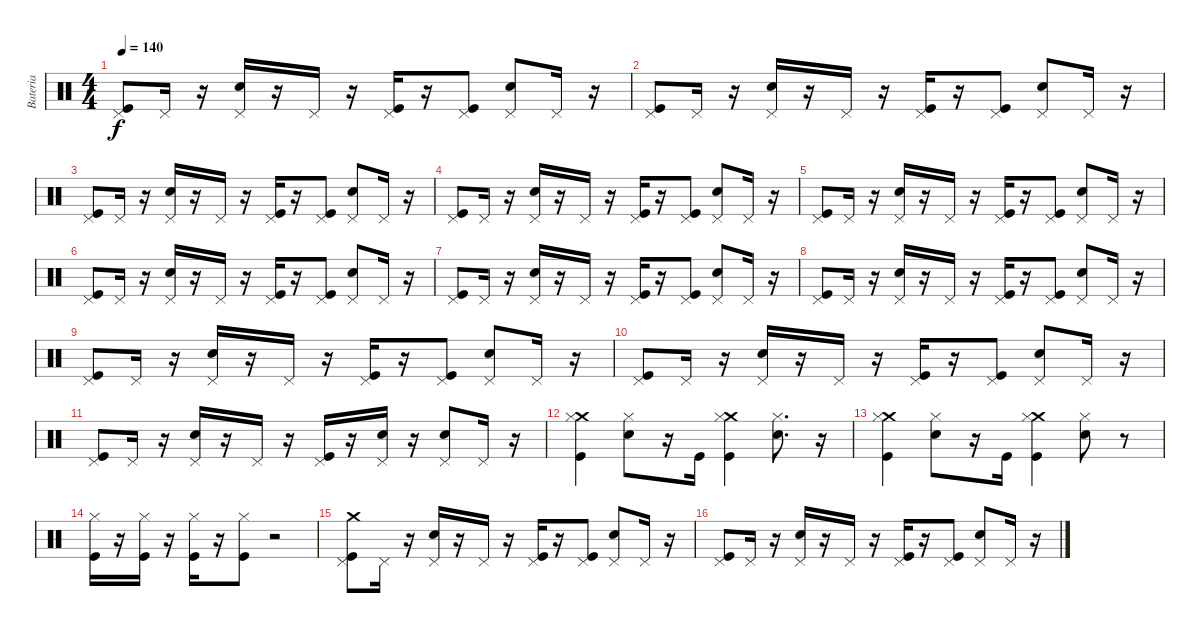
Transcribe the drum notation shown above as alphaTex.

\track ("Bateria" "Bateria") {instrument percussion}
\staff {score}
\articulation defaults
\ts (4 4)
\tempo 140
\clef neutral
\ks c
("Pedal Hi-Hat (hit)" "Kick (hit)").8{dy f} "Pedal Hi-Hat (hit)".16 r.16 ("Pedal Hi-Hat (hit)" "Snare (hit) 2").16 r.16 "Pedal Hi-Hat (hit)".16 r.16 ("Pedal Hi-Hat (hit)" "Kick (hit)").16 r.16 ("Pedal Hi-Hat (hit)" "Kick (hit)").8 ("Pedal Hi-Hat (hit)" "Snare (hit) 2").8 "Pedal Hi-Hat (hit)".16 r.16 |
("Pedal Hi-Hat (hit)" "Kick (hit)").8 "Pedal Hi-Hat (hit)".16 r.16 ("Pedal Hi-Hat (hit)" "Snare (hit) 2").16 r.16 "Pedal Hi-Hat (hit)".16 r.16 ("Pedal Hi-Hat (hit)" "Kick (hit)").16 r.16 ("Pedal Hi-Hat (hit)" "Kick (hit)").8 ("Pedal Hi-Hat (hit)" "Snare (hit) 2").8 "Pedal Hi-Hat (hit)".16 r.16 |
("Pedal Hi-Hat (hit)" "Kick (hit)").8 "Pedal Hi-Hat (hit)".16 r.16 ("Pedal Hi-Hat (hit)" "Snare (hit) 2").16 r.16 "Pedal Hi-Hat (hit)".16 r.16 ("Pedal Hi-Hat (hit)" "Kick (hit)").16 r.16 ("Pedal Hi-Hat (hit)" "Kick (hit)").8 ("Pedal Hi-Hat (hit)" "Snare (hit) 2").8 "Pedal Hi-Hat (hit)".16 r.16 |
("Pedal Hi-Hat (hit)" "Kick (hit)").8 "Pedal Hi-Hat (hit)".16 r.16 ("Pedal Hi-Hat (hit)" "Snare (hit) 2").16 r.16 "Pedal Hi-Hat (hit)".16 r.16 ("Pedal Hi-Hat (hit)" "Kick (hit)").16 r.16 ("Pedal Hi-Hat (hit)" "Kick (hit)").8 ("Pedal Hi-Hat (hit)" "Snare (hit) 2").8 "Pedal Hi-Hat (hit)".16 r.16 |
("Pedal Hi-Hat (hit)" "Kick (hit)").8 "Pedal Hi-Hat (hit)".16 r.16 ("Pedal Hi-Hat (hit)" "Snare (hit) 2").16 r.16 "Pedal Hi-Hat (hit)".16 r.16 ("Pedal Hi-Hat (hit)" "Kick (hit)").16 r.16 ("Pedal Hi-Hat (hit)" "Kick (hit)").8 ("Pedal Hi-Hat (hit)" "Snare (hit) 2").8 "Pedal Hi-Hat (hit)".16 r.16 |
("Pedal Hi-Hat (hit)" "Kick (hit)").8 "Pedal Hi-Hat (hit)".16 r.16 ("Pedal Hi-Hat (hit)" "Snare (hit) 2").16 r.16 "Pedal Hi-Hat (hit)".16 r.16 ("Pedal Hi-Hat (hit)" "Kick (hit)").16 r.16 ("Pedal Hi-Hat (hit)" "Kick (hit)").8 ("Pedal Hi-Hat (hit)" "Snare (hit) 2").8 "Pedal Hi-Hat (hit)".16 r.16 |
("Pedal Hi-Hat (hit)" "Kick (hit)").8 "Pedal Hi-Hat (hit)".16 r.16 ("Pedal Hi-Hat (hit)" "Snare (hit) 2").16 r.16 "Pedal Hi-Hat (hit)".16 r.16 ("Pedal Hi-Hat (hit)" "Kick (hit)").16 r.16 ("Pedal Hi-Hat (hit)" "Kick (hit)").8 ("Pedal Hi-Hat (hit)" "Snare (hit) 2").8 "Pedal Hi-Hat (hit)".16 r.16 |
("Pedal Hi-Hat (hit)" "Kick (hit)").8 "Pedal Hi-Hat (hit)".16 r.16 ("Pedal Hi-Hat (hit)" "Snare (hit) 2").16 r.16 "Pedal Hi-Hat (hit)".16 r.16 ("Pedal Hi-Hat (hit)" "Kick (hit)").16 r.16 ("Pedal Hi-Hat (hit)" "Kick (hit)").8 ("Pedal Hi-Hat (hit)" "Snare (hit) 2").8 "Pedal Hi-Hat (hit)".16 r.16 |
("Pedal Hi-Hat (hit)" "Kick (hit)").8 "Pedal Hi-Hat (hit)".16 r.16 ("Pedal Hi-Hat (hit)" "Snare (hit) 2").16 r.16 "Pedal Hi-Hat (hit)".16 r.16 ("Pedal Hi-Hat (hit)" "Kick (hit)").16 r.16 ("Pedal Hi-Hat (hit)" "Kick (hit)").8 ("Pedal Hi-Hat (hit)" "Snare (hit) 2").8 "Pedal Hi-Hat (hit)".16 r.16 |
("Pedal Hi-Hat (hit)" "Kick (hit)").8 "Pedal Hi-Hat (hit)".16 r.16 ("Pedal Hi-Hat (hit)" "Snare (hit) 2").16 r.16 "Pedal Hi-Hat (hit)".16 r.16 ("Pedal Hi-Hat (hit)" "Kick (hit)").16 r.16 ("Pedal Hi-Hat (hit)" "Kick (hit)").8 ("Pedal Hi-Hat (hit)" "Snare (hit) 2").8 "Pedal Hi-Hat (hit)".16 r.16 |
("Pedal Hi-Hat (hit)" "Kick (hit)").8 "Pedal Hi-Hat (hit)".16 r.16 ("Pedal Hi-Hat (hit)" "Snare (hit) 2").16 r.16 "Pedal Hi-Hat (hit)".16 r.16 ("Pedal Hi-Hat (hit)" "Kick (hit)").16 r.16 ("Pedal Hi-Hat (hit)" "Snare (hit) 2").16 r.16 ("Pedal Hi-Hat (hit)" "Snare (hit) 2").8 "Pedal Hi-Hat (hit)".16 r.16 |
("Crash medium (hit)" "Hi-Hat (closed)" "Kick (hit)").4 ("Hi-Hat (closed)" "Snare (hit) 2").8 r.16 "Kick (hit)".16 ("Kick (hit)" "Crash medium (hit)" "Hi-Hat (closed)").4 ("Snare (hit) 2" "Hi-Hat (closed)").8{d} r.16 |
("Crash medium (hit)" "Hi-Hat (closed)" "Kick (hit)").4 ("Hi-Hat (closed)" "Snare (hit) 2").8 r.16 "Kick (hit)".16 ("Crash medium (hit)" "Hi-Hat (closed)" "Kick (hit)").4 ("Hi-Hat (closed)" "Snare (hit) 2").8 r.8 |
("Hi-Hat (closed)" "Kick (hit)").16 r.16 ("Hi-Hat (closed)" "Kick (hit)").16 r.16 ("Hi-Hat (closed)" "Kick (hit)").16 r.16 ("Hi-Hat (closed)" "Kick (hit)").8 r.2 |
("Crash medium (hit)" "Pedal Hi-Hat (hit)" "Kick (hit)").8 "Pedal Hi-Hat (hit)".16 r.16 ("Pedal Hi-Hat (hit)" "Snare (hit) 2").16 r.16 "Pedal Hi-Hat (hit)".16 r.16 ("Pedal Hi-Hat (hit)" "Kick (hit)").16 r.16 ("Pedal Hi-Hat (hit)" "Kick (hit)").8 ("Pedal Hi-Hat (hit)" "Snare (hit) 2").8 "Pedal Hi-Hat (hit)".16 r.16 |
("Pedal Hi-Hat (hit)" "Kick (hit)").8 "Pedal Hi-Hat (hit)".16 r.16 ("Pedal Hi-Hat (hit)" "Snare (hit) 2").16 r.16 "Pedal Hi-Hat (hit)".16 r.16 ("Pedal Hi-Hat (hit)" "Kick (hit)").16 r.16 ("Pedal Hi-Hat (hit)" "Kick (hit)").8 ("Pedal Hi-Hat (hit)" "Snare (hit) 2").8 "Pedal Hi-Hat (hit)".16 r.16
